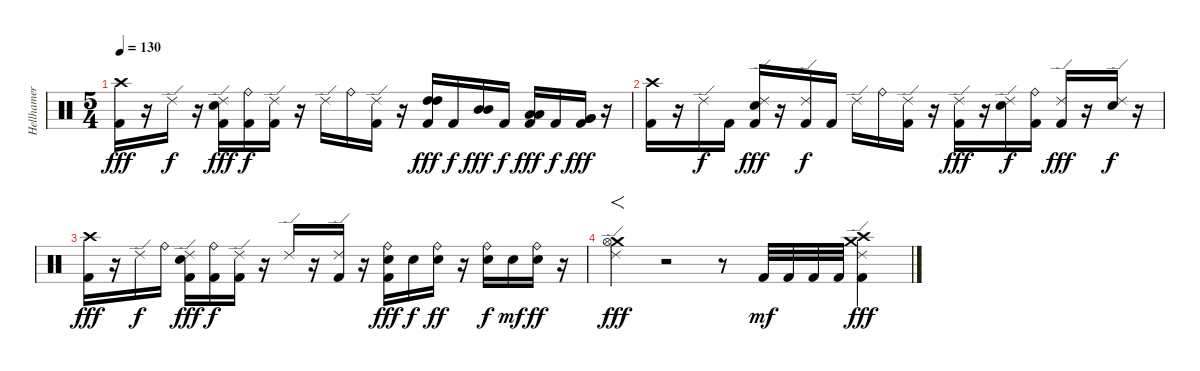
\track ("Hellhamer" "Hellhamer") {instrument percussion}
\staff {score}
\articulation defaults
\ts (5 4)
\tempo 130
\clef neutral
\ks c
("Crash high (hit)" "Kick (hit) 2").16{dy fff} r.16 "Ride (edge) 2".16{dy f} r.16 ("Ride (edge) 2" "Electric Snare (hit)" "Kick (hit) 2").16{dy fff} ("Ride (bell)" "Kick (hit) 2").16{dy f} ("Ride (edge) 2" "Kick (hit) 2").16 r.16 "Ride (edge) 2".16 "Ride (bell)".16 ("Ride (edge) 2" "Kick (hit) 2").16 r.16 ("High Tom (hit)" "High Tom (hit)" "Kick (hit) 2").16{dy fff} "Kick (hit) 2".16{dy f} ("Mid Tom (hit)" "Mid Tom (hit)").16{dy fff} "Kick (hit) 2".16{dy f} ("Low Tom (hit)" "Low Tom (hit)" "Kick (hit) 2").16{dy fff} "Kick (hit) 2".16{dy f} ("Very Low Tom (hit)" "Very Low Tom (hit)" "Kick (hit) 2").16{dy fff} r.16 |
("Crash high (hit)" "Kick (hit) 2").16 r.16 "Ride (edge) 2".16{dy f} "Kick (hit) 2".16 ("Ride (edge) 2" "Electric Snare (hit)" "Kick (hit) 2").16{dy fff} r.16 ("Ride (edge) 2" "Kick (hit) 2").16{dy f} "Kick (hit) 2".16 "Ride (edge) 2".16 "Ride (bell)".16 ("Ride (edge) 2" "Kick (hit) 2").16 r.16 ("Ride (edge) 2" "Kick (hit) 2").16{dy fff} r.16 ("Ride (edge) 2" "Electric Snare (hit)").16{dy f} ("Ride (bell)" "Kick (hit) 2").16 ("Ride (edge) 2" "Kick (hit) 2").16{dy fff} r.16 ("Ride (edge) 2" "Electric Snare (hit)").16{dy f} r.16 |
("Crash high (hit)" "Kick (hit) 2").16{dy fff} r.16 "Ride (edge) 2".16{dy f} "Ride (bell)".16 ("Ride (edge) 2" "Electric Snare (hit)" "Kick (hit) 2").16{dy fff} ("Ride (bell)" "Kick (hit) 2").16{dy f} ("Ride (edge) 2" "Kick (hit) 2").16 r.16 "Ride (edge) 2".16 r.16 ("Ride (edge) 2" "Kick (hit) 2").16 r.16 ("Ride (bell)" "Electric Snare (hit)" "Kick (hit) 2").16{dy fff} "Electric Snare (hit)".16{dy f} ("Ride (bell)" "Electric Snare (hit)").16{dy ff} r.16 ("Ride (bell)" "Electric Snare (hit)").16{dy f} "Electric Snare (hit)".16{dy mf} ("Ride (bell)" "Electric Snare (hit)").16{dy ff} r.16 |
("Crash medium (hit)" "Ride (edge) 2" "Hi-Hat (open)").4{f dy fff} r.2 r.8 "Kick (hit) 2".32{dy mf} "Kick (hit) 2".32 "Kick (hit) 2".32 "Kick (hit) 2".32 ("Crash high (hit)" "Ride (edge) 2" "Crash medium (hit)" "Kick (hit) 2").4{dy fff}
